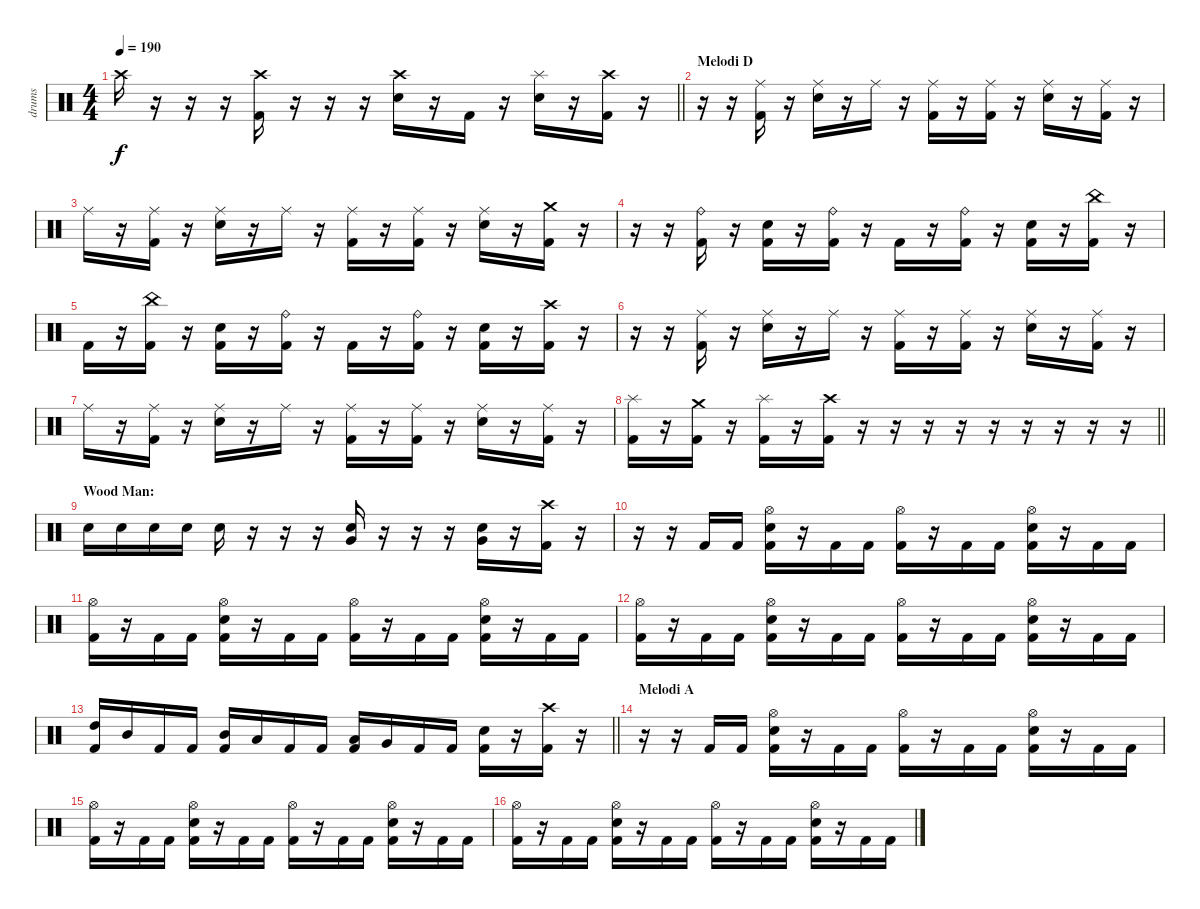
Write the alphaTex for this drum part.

\track ("drums" "drums") {instrument percussion}
\staff {score}
\articulation defaults
\ts (4 4)
\tempo 190
\clef neutral
\barLineRight lightlight
\ks c "Crash high (hit)".16{dy f}
r.16 r.16 r.16 ("Crash high (hit)" "Kick (hit) 2").16 r.16 r.16 r.16 ("Crash high (hit)" "Electric Snare (hit)").16 r.16 "Kick (hit) 2".16 r.16 ("Splash (hit)" "Electric Snare (hit)").16 r.16 ("Crash high (hit)" "Kick (hit) 2").16 r.16 |
\section ("" "Melodi D")
r.16 r.16 ("Ride (middle)" "Kick (hit) 2").16 r.16 ("Ride (middle)" "Electric Snare (hit)").16 r.16 "Ride (middle)".16 r.16 ("Ride (middle)" "Kick (hit) 2").16 r.16 ("Ride (middle)" "Kick (hit) 2").16 r.16 ("Ride (middle)" "Electric Snare (hit)").16 r.16 ("Ride (middle)" "Kick (hit) 2").16 r.16 |
"Ride (middle)".16 r.16 ("Ride (middle)" "Kick (hit) 2").16 r.16 ("Ride (middle)" "Electric Snare (hit)").16 r.16 "Ride (middle)".16 r.16 ("Ride (middle)" "Kick (hit) 2").16 r.16 ("Ride (middle)" "Kick (hit) 2").16 r.16 ("Ride (middle)" "Electric Snare (hit)").16 r.16 ("Crash medium (hit)" "Kick (hit) 2").16 r.16 |
r.16 r.16 ("Ride (bell)" "Kick (hit) 2").16 r.16 ("Electric Snare (hit)" "Kick (hit) 2").16 r.16 ("Ride (bell)" "Kick (hit) 2").16 r.16 "Kick (hit) 2".16 r.16 ("Ride (bell)" "Kick (hit) 2").16 r.16 ("Electric Snare (hit)" "Kick (hit) 2").16 r.16 ("China (hit)" "Kick (hit) 2").16 r.16 |
"Kick (hit) 2".16 r.16 ("China (hit)" "Kick (hit) 2").16 r.16 ("Electric Snare (hit)" "Kick (hit) 2").16 r.16 ("Ride (bell)" "Kick (hit) 2").16 r.16 "Kick (hit) 2".16 r.16 ("Ride (bell)" "Kick (hit) 2").16 r.16 ("Electric Snare (hit)" "Kick (hit) 2").16 r.16 ("Crash high (hit)" "Kick (hit) 2").16 r.16 |
r.16 r.16 ("Ride (middle)" "Kick (hit) 2").16 r.16 ("Ride (middle)" "Electric Snare (hit)").16 r.16 "Ride (middle)".16 r.16 ("Ride (middle)" "Kick (hit) 2").16 r.16 ("Ride (middle)" "Kick (hit) 2").16 r.16 ("Ride (middle)" "Electric Snare (hit)").16 r.16 ("Ride (middle)" "Kick (hit) 2").16 r.16 |
"Ride (middle)".16 r.16 ("Ride (middle)" "Kick (hit) 2").16 r.16 ("Ride (middle)" "Electric Snare (hit)").16 r.16 "Ride (middle)".16 r.16 ("Ride (middle)" "Kick (hit) 2").16 r.16 ("Ride (middle)" "Kick (hit) 2").16 r.16 ("Ride (middle)" "Electric Snare (hit)").16 r.16 ("Ride (middle)" "Kick (hit) 2").16 r.16 |
\barLineRight lightlight
("Splash (hit)" "Kick (hit) 2").16 r.16 ("Crash medium (hit)" "Kick (hit) 2").16 r.16 ("Splash (hit)" "Kick (hit) 2").16 r.16 ("Crash high (hit)" "Kick (hit) 2").16 r.16 r.16 r.16 r.16 r.16 r.16 r.16 r.16 r.16 |
\section ("" "Wood Man:")
"Electric Snare (hit)".16 "Electric Snare (hit)".16 "Electric Snare (hit)".16 "Electric Snare (hit)".16 "Electric Snare (hit)".16 r.16 r.16 r.16 ("Very Low Tom (hit)" "Electric Snare (hit)").16 r.16 r.16 r.16 ("Very Low Tom (hit)" "Electric Snare (hit)").16 r.16 ("Crash high (hit)" "Kick (hit) 2").16 r.16 |
r.16 r.16 "Kick (hit) 2".16 "Kick (hit) 2".16 ("Hi-Hat (open)" "Electric Snare (hit)" "Kick (hit) 2").16 r.16 "Kick (hit) 2".16 "Kick (hit) 2".16 ("Hi-Hat (open)" "Kick (hit) 2").16 r.16 "Kick (hit) 2".16 "Kick (hit) 2".16 ("Hi-Hat (open)" "Electric Snare (hit)" "Kick (hit) 2").16 r.16 "Kick (hit) 2".16 "Kick (hit) 2".16 |
("Hi-Hat (open)" "Kick (hit) 2").16 r.16 "Kick (hit) 2".16 "Kick (hit) 2".16 ("Hi-Hat (open)" "Electric Snare (hit)" "Kick (hit) 2").16 r.16 "Kick (hit) 2".16 "Kick (hit) 2".16 ("Hi-Hat (open)" "Kick (hit) 2").16 r.16 "Kick (hit) 2".16 "Kick (hit) 2".16 ("Hi-Hat (open)" "Electric Snare (hit)" "Kick (hit) 2").16 r.16 "Kick (hit) 2".16 "Kick (hit) 2".16 |
("Hi-Hat (open)" "Kick (hit) 2").16 r.16 "Kick (hit) 2".16 "Kick (hit) 2".16 ("Hi-Hat (open)" "Electric Snare (hit)" "Kick (hit) 2").16 r.16 "Kick (hit) 2".16 "Kick (hit) 2".16 ("Hi-Hat (open)" "Kick (hit) 2").16 r.16 "Kick (hit) 2".16 "Kick (hit) 2".16 ("Hi-Hat (open)" "Electric Snare (hit)" "Kick (hit) 2").16 r.16 "Kick (hit) 2".16 "Kick (hit) 2".16 |
\barLineRight lightlight
("High Tom (hit)" "Kick (hit) 2").16 "Mid Tom (hit)".16 "Kick (hit) 2".16 "Kick (hit) 2".16 ("Mid Tom (hit)" "Kick (hit) 2").16 "Low Tom (hit)".16 "Kick (hit) 2".16 "Kick (hit) 2".16 ("Low Tom (hit)" "Kick (hit) 2").16 "Very Low Tom (hit)".16 "Kick (hit) 2".16 "Kick (hit) 2".16 ("Electric Snare (hit)" "Kick (hit) 2").16 r.16 ("Crash high (hit)" "Kick (hit) 2").16 r.16 |
\section ("" "Melodi A")
r.16 r.16 "Kick (hit) 2".16 "Kick (hit) 2".16 ("Hi-Hat (open)" "Electric Snare (hit)" "Kick (hit) 2").16 r.16 "Kick (hit) 2".16 "Kick (hit) 2".16 ("Hi-Hat (open)" "Kick (hit) 2").16 r.16 "Kick (hit) 2".16 "Kick (hit) 2".16 ("Hi-Hat (open)" "Electric Snare (hit)" "Kick (hit) 2").16 r.16 "Kick (hit) 2".16 "Kick (hit) 2".16 |
("Hi-Hat (open)" "Kick (hit) 2").16 r.16 "Kick (hit) 2".16 "Kick (hit) 2".16 ("Hi-Hat (open)" "Electric Snare (hit)" "Kick (hit) 2").16 r.16 "Kick (hit) 2".16 "Kick (hit) 2".16 ("Hi-Hat (open)" "Kick (hit) 2").16 r.16 "Kick (hit) 2".16 "Kick (hit) 2".16 ("Hi-Hat (open)" "Electric Snare (hit)" "Kick (hit) 2").16 r.16 "Kick (hit) 2".16 "Kick (hit) 2".16 |
("Hi-Hat (open)" "Kick (hit) 2").16 r.16 "Kick (hit) 2".16 "Kick (hit) 2".16 ("Hi-Hat (open)" "Electric Snare (hit)" "Kick (hit) 2").16 r.16 "Kick (hit) 2".16 "Kick (hit) 2".16 ("Hi-Hat (open)" "Kick (hit) 2").16 r.16 "Kick (hit) 2".16 "Kick (hit) 2".16 ("Hi-Hat (open)" "Electric Snare (hit)" "Kick (hit) 2").16 r.16 "Kick (hit) 2".16 "Kick (hit) 2".16
